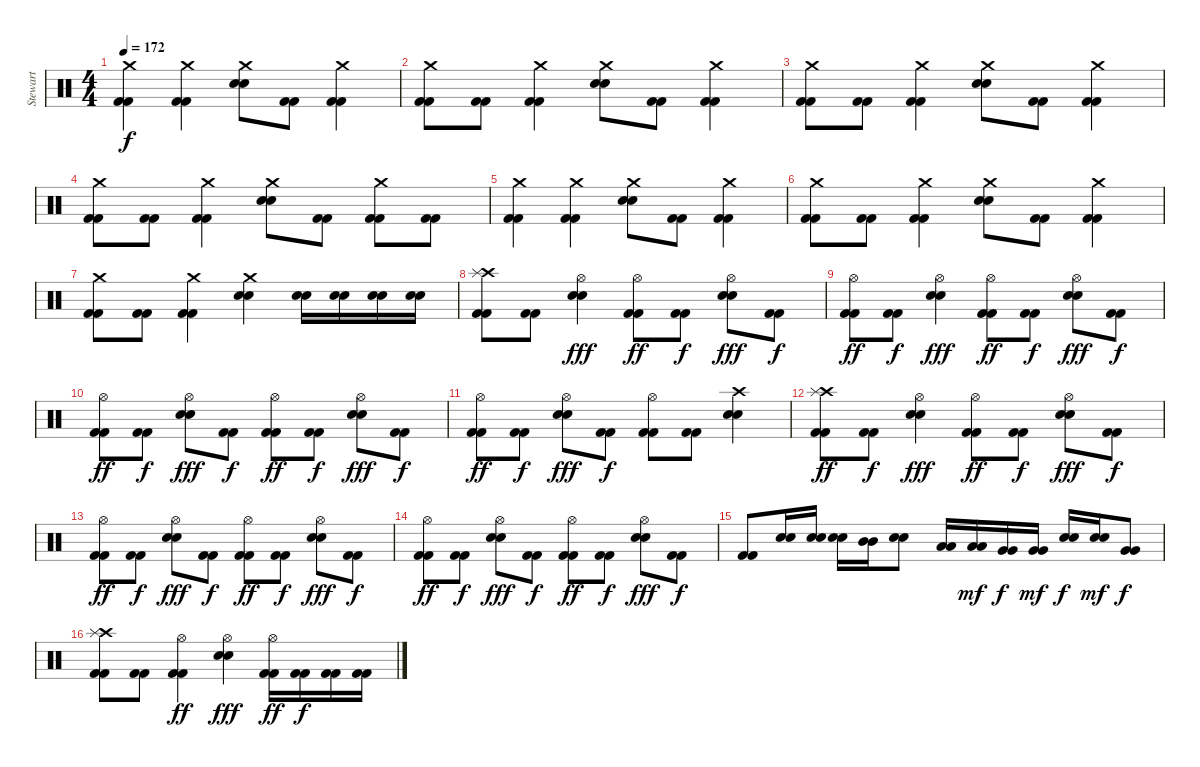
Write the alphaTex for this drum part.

\track ("Stewart" "Stewart") {instrument percussion}
\staff {score}
\articulation defaults
\ts (4 4)
\tempo 172
\clef neutral
\ks c
("Crash medium (hit)" "Kick (hit) 2" "Kick (hit) 2").4{dy f} ("Crash medium (hit)" "Kick (hit) 2" "Kick (hit) 2").4 ("Crash medium (hit)" "Electric Snare (hit)" "Electric Snare (hit)").8 ("Kick (hit) 2" "Kick (hit) 2").8 ("Crash medium (hit)" "Kick (hit) 2" "Kick (hit) 2").4 |
("Crash medium (hit)" "Kick (hit) 2" "Kick (hit) 2").8 ("Kick (hit) 2" "Kick (hit) 2").8 ("Crash medium (hit)" "Kick (hit) 2" "Kick (hit) 2").4 ("Crash medium (hit)" "Electric Snare (hit)" "Electric Snare (hit)").8 ("Kick (hit) 2" "Kick (hit) 2").8 ("Crash medium (hit)" "Kick (hit) 2" "Kick (hit) 2").4 |
("Crash medium (hit)" "Kick (hit) 2" "Kick (hit) 2").8 ("Kick (hit) 2" "Kick (hit) 2").8 ("Crash medium (hit)" "Kick (hit) 2" "Kick (hit) 2").4 ("Crash medium (hit)" "Electric Snare (hit)" "Electric Snare (hit)").8 ("Kick (hit) 2" "Kick (hit) 2").8 ("Crash medium (hit)" "Kick (hit) 2" "Kick (hit) 2").4 |
("Crash medium (hit)" "Kick (hit) 2" "Kick (hit) 2").8 ("Kick (hit) 2" "Kick (hit) 2").8 ("Crash medium (hit)" "Kick (hit) 2" "Kick (hit) 2").4 ("Crash medium (hit)" "Electric Snare (hit)" "Electric Snare (hit)").8 ("Kick (hit) 2" "Kick (hit) 2").8 ("Crash medium (hit)" "Kick (hit) 2" "Kick (hit) 2").8 ("Kick (hit) 2" "Kick (hit) 2").8 |
("Crash medium (hit)" "Kick (hit) 2" "Kick (hit) 2").4 ("Crash medium (hit)" "Kick (hit) 2" "Kick (hit) 2").4 ("Crash medium (hit)" "Electric Snare (hit)" "Electric Snare (hit)").8 ("Kick (hit) 2" "Kick (hit) 2").8 ("Crash medium (hit)" "Kick (hit) 2" "Kick (hit) 2").4 |
("Crash medium (hit)" "Kick (hit) 2" "Kick (hit) 2").8 ("Kick (hit) 2" "Kick (hit) 2").8 ("Crash medium (hit)" "Kick (hit) 2" "Kick (hit) 2").4 ("Crash medium (hit)" "Electric Snare (hit)" "Electric Snare (hit)").8 ("Kick (hit) 2" "Kick (hit) 2").8 ("Crash medium (hit)" "Kick (hit) 2" "Kick (hit) 2").4 |
("Crash medium (hit)" "Kick (hit) 2" "Kick (hit) 2").8 ("Kick (hit) 2" "Kick (hit) 2").8 ("Crash medium (hit)" "Kick (hit) 2" "Kick (hit) 2").4 ("Crash medium (hit)" "Electric Snare (hit)" "Electric Snare (hit)").4 ("Electric Snare (hit)" "Electric Snare (hit)").16 ("Electric Snare (hit)" "Electric Snare (hit)").16 ("Electric Snare (hit)" "Electric Snare (hit)").16 ("Electric Snare (hit)" "Electric Snare (hit)").16 |
("Crash high (hit)" "Splash (hit)" "Kick (hit) 2" "Kick (hit) 2").8 ("Kick (hit) 2" "Kick (hit) 2").8 ("Hi-Hat (open)" "Electric Snare (hit)" "Electric Snare (hit)").4{dy fff} ("Hi-Hat (open)" "Kick (hit) 2" "Kick (hit) 2").8{dy ff} ("Kick (hit) 2" "Kick (hit) 2").8{dy f} ("Hi-Hat (open)" "Electric Snare (hit)" "Electric Snare (hit)").8{dy fff} ("Kick (hit) 2" "Kick (hit) 2").8{dy f} |
("Hi-Hat (open)" "Kick (hit) 2" "Kick (hit) 2").8{dy ff} ("Kick (hit) 2" "Kick (hit) 2").8{dy f} ("Hi-Hat (open)" "Electric Snare (hit)" "Electric Snare (hit)").4{dy fff} ("Hi-Hat (open)" "Kick (hit) 2" "Kick (hit) 2").8{dy ff} ("Kick (hit) 2" "Kick (hit) 2").8{dy f} ("Hi-Hat (open)" "Electric Snare (hit)" "Electric Snare (hit)").8{dy fff} ("Kick (hit) 2" "Kick (hit) 2").8{dy f} |
("Hi-Hat (open)" "Kick (hit) 2" "Kick (hit) 2").8{dy ff} ("Kick (hit) 2" "Kick (hit) 2").8{dy f} ("Hi-Hat (open)" "Electric Snare (hit)" "Electric Snare (hit)").8{dy fff} ("Kick (hit) 2" "Kick (hit) 2").8{dy f} ("Hi-Hat (open)" "Kick (hit) 2" "Kick (hit) 2").8{dy ff} ("Kick (hit) 2" "Kick (hit) 2").8{dy f} ("Hi-Hat (open)" "Electric Snare (hit)" "Electric Snare (hit)").8{dy fff} ("Kick (hit) 2" "Kick (hit) 2").8{dy f} |
("Hi-Hat (open)" "Kick (hit) 2" "Kick (hit) 2").8{dy ff} ("Kick (hit) 2" "Kick (hit) 2").8{dy f} ("Hi-Hat (open)" "Electric Snare (hit)" "Electric Snare (hit)").8{dy fff} ("Kick (hit) 2" "Kick (hit) 2").8{dy f} ("Hi-Hat (open)" "Kick (hit) 2" "Kick (hit) 2").8 ("Kick (hit) 2" "Kick (hit) 2").8 ("Crash high (hit)" "Electric Snare (hit)" "Electric Snare (hit)").4 |
("Crash high (hit)" "Splash (hit)" "Kick (hit) 2" "Kick (hit) 2").8{dy ff} ("Kick (hit) 2" "Kick (hit) 2").8{dy f} ("Hi-Hat (open)" "Electric Snare (hit)" "Electric Snare (hit)").4{dy fff} ("Hi-Hat (open)" "Kick (hit) 2" "Kick (hit) 2").8{dy ff} ("Kick (hit) 2" "Kick (hit) 2").8{dy f} ("Hi-Hat (open)" "Electric Snare (hit)" "Electric Snare (hit)").8{dy fff} ("Kick (hit) 2" "Kick (hit) 2").8{dy f} |
("Hi-Hat (open)" "Kick (hit) 2" "Kick (hit) 2").8{dy ff} ("Kick (hit) 2" "Kick (hit) 2").8{dy f} ("Hi-Hat (open)" "Electric Snare (hit)" "Electric Snare (hit)").8{dy fff} ("Kick (hit) 2" "Kick (hit) 2").8{dy f} ("Hi-Hat (open)" "Kick (hit) 2" "Kick (hit) 2").8{dy ff} ("Kick (hit) 2" "Kick (hit) 2").8{dy f} ("Hi-Hat (open)" "Electric Snare (hit)" "Electric Snare (hit)").8{dy fff} ("Kick (hit) 2" "Kick (hit) 2").8{dy f} |
("Hi-Hat (open)" "Kick (hit) 2" "Kick (hit) 2").8{dy ff} ("Kick (hit) 2" "Kick (hit) 2").8{dy f} ("Hi-Hat (open)" "Electric Snare (hit)" "Electric Snare (hit)").8{dy fff} ("Kick (hit) 2" "Kick (hit) 2").8{dy f} ("Hi-Hat (open)" "Kick (hit) 2" "Kick (hit) 2").8{dy ff} ("Kick (hit) 2" "Kick (hit) 2").8{dy f} ("Hi-Hat (open)" "Electric Snare (hit)" "Electric Snare (hit)").8{dy fff} ("Kick (hit) 2" "Kick (hit) 2").8{dy f} |
("Kick (hit) 2" "Kick (hit) 2").8 ("Electric Snare (hit)" "Electric Snare (hit)").16 ("Electric Snare (hit)" "Electric Snare (hit)").16 ("Electric Snare (hit)" "Electric Snare (hit)").16 ("Mid Tom (hit)" "Mid Tom (hit)").16 ("Electric Snare (hit)" "Electric Snare (hit)").8 ("Low Tom (hit)" "Low Tom (hit)").16 ("Low Tom (hit)" "Low Tom (hit)").16{dy mf} ("Very Low Tom (hit)" "Very Low Tom (hit)").16{dy f} ("Very Low Tom (hit)" "Very Low Tom (hit)").16{dy mf} ("Electric Snare (hit)" "Electric Snare (hit)").16{dy f} ("Electric Snare (hit)" "Electric Snare (hit)").16{dy mf} ("Very Low Tom (hit)" "Very Low Tom (hit)").8{dy f} |
("Crash high (hit)" "Splash (hit)" "Kick (hit) 2" "Kick (hit) 2").8 ("Kick (hit) 2" "Kick (hit) 2").8 ("Hi-Hat (open)" "Kick (hit) 2" "Kick (hit) 2").4{dy ff} ("Hi-Hat (open)" "Electric Snare (hit)" "Electric Snare (hit)").4{dy fff} ("Hi-Hat (open)" "Kick (hit) 2" "Kick (hit) 2").16{dy ff} ("Kick (hit) 2" "Kick (hit) 2").16{dy f} ("Kick (hit) 2" "Kick (hit) 2").16 ("Kick (hit) 2" "Kick (hit) 2").16
